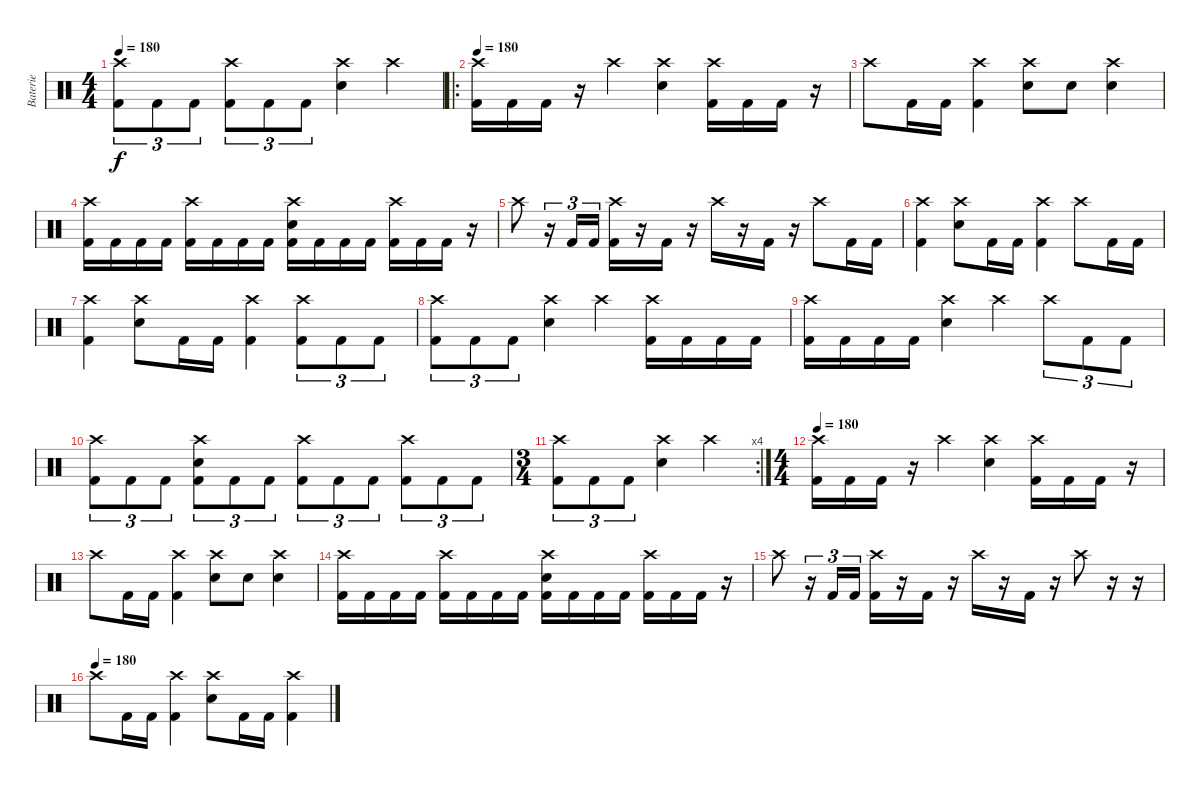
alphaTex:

\track ("Baterie" "Baterie") {instrument percussion}
\staff {score}
\articulation defaults
\ts (4 4)
\tempo 180
\clef neutral
\ks c
("Crash high (hit)" "Kick (hit) 2").8{tu (3 2) dy f} "Kick (hit) 2".8{tu (3 2)} "Kick (hit) 2".8{tu (3 2)} ("Crash high (hit)" "Kick (hit) 2").8{tu (3 2)} "Kick (hit) 2".8{tu (3 2)} "Kick (hit) 2".8{tu (3 2)} ("Crash high (hit)" "Electric Snare (hit)").4 "Crash high (hit)".4 |
\ro
\tempo 180
("Crash high (hit)" "Kick (hit) 2").16 "Kick (hit) 2".16 "Kick (hit) 2".16 r.16 "Crash high (hit)".4 ("Crash high (hit)" "Electric Snare (hit)").4 ("Crash high (hit)" "Kick (hit) 2").16 "Kick (hit) 2".16 "Kick (hit) 2".16 r.16 |
"Crash high (hit)".8 "Kick (hit) 2".16 "Kick (hit) 2".16 ("Crash high (hit)" "Kick (hit) 2").4 ("Crash high (hit)" "Electric Snare (hit)").8 "Electric Snare (hit)".8 ("Crash high (hit)" "Electric Snare (hit)").4 |
("Crash high (hit)" "Kick (hit) 2").16 "Kick (hit) 2".16 "Kick (hit) 2".16 "Kick (hit) 2".16 ("Crash high (hit)" "Kick (hit) 2").16 "Kick (hit) 2".16 "Kick (hit) 2".16 "Kick (hit) 2".16 ("Crash high (hit)" "Electric Snare (hit)" "Kick (hit) 2").16 "Kick (hit) 2".16 "Kick (hit) 2".16 "Kick (hit) 2".16 ("Crash high (hit)" "Kick (hit) 2").16 "Kick (hit) 2".16 "Kick (hit) 2".16 r.16 |
"Crash high (hit)".8 r.16{tu (3 2)} "Kick (hit) 2".16{tu (3 2)} "Kick (hit) 2".16{tu (3 2)} ("Crash high (hit)" "Kick (hit) 2").16 r.16 "Kick (hit) 2".16 r.16 "Crash high (hit)".16 r.16 "Kick (hit) 2".16 r.16 "Crash high (hit)".8 "Kick (hit) 2".16 "Kick (hit) 2".16 |
("Crash high (hit)" "Kick (hit) 2").4 ("Crash high (hit)" "Electric Snare (hit)").8 "Kick (hit) 2".16 "Kick (hit) 2".16 ("Crash high (hit)" "Kick (hit) 2").4 "Crash high (hit)".8 "Kick (hit) 2".16 "Kick (hit) 2".16 |
("Crash high (hit)" "Kick (hit) 2").4 ("Crash high (hit)" "Electric Snare (hit)").8 "Kick (hit) 2".16 "Kick (hit) 2".16 ("Crash high (hit)" "Kick (hit) 2").4 ("Crash high (hit)" "Kick (hit) 2").8{tu (3 2)} "Kick (hit) 2".8{tu (3 2)} "Kick (hit) 2".8{tu (3 2)} |
("Crash high (hit)" "Kick (hit) 2").8{tu (3 2)} "Kick (hit) 2".8{tu (3 2)} "Kick (hit) 2".8{tu (3 2)} ("Crash high (hit)" "Electric Snare (hit)").4 "Crash high (hit)".4 ("Crash high (hit)" "Kick (hit) 2").16 "Kick (hit) 2".16 "Kick (hit) 2".16 "Kick (hit) 2".16 |
("Crash high (hit)" "Kick (hit) 2").16 "Kick (hit) 2".16 "Kick (hit) 2".16 "Kick (hit) 2".16 ("Crash high (hit)" "Electric Snare (hit)").4 "Crash high (hit)".4 "Crash high (hit)".8{tu (3 2)} "Kick (hit) 2".8{tu (3 2)} "Kick (hit) 2".8{tu (3 2)} |
("Crash high (hit)" "Kick (hit) 2").8{tu (3 2)} "Kick (hit) 2".8{tu (3 2)} "Kick (hit) 2".8{tu (3 2)} ("Crash high (hit)" "Kick (hit) 2" "Electric Snare (hit)").8{tu (3 2)} "Kick (hit) 2".8{tu (3 2)} "Kick (hit) 2".8{tu (3 2)} ("Crash high (hit)" "Kick (hit) 2").8{tu (3 2)} "Kick (hit) 2".8{tu (3 2)} "Kick (hit) 2".8{tu (3 2)} ("Crash high (hit)" "Kick (hit) 2").8{tu (3 2)} "Kick (hit) 2".8{tu (3 2)} "Kick (hit) 2".8{tu (3 2)} |
\rc 4
\ts (3 4)
("Crash high (hit)" "Kick (hit) 2").8{tu (3 2)} "Kick (hit) 2".8{tu (3 2)} "Kick (hit) 2".8{tu (3 2)} ("Crash high (hit)" "Electric Snare (hit)").4 "Crash high (hit)".4 |
\ts (4 4)
\tempo 180
("Crash high (hit)" "Kick (hit) 2").16 "Kick (hit) 2".16 "Kick (hit) 2".16 r.16 "Crash high (hit)".4 ("Crash high (hit)" "Electric Snare (hit)").4 ("Crash high (hit)" "Kick (hit) 2").16 "Kick (hit) 2".16 "Kick (hit) 2".16 r.16 |
"Crash high (hit)".8 "Kick (hit) 2".16 "Kick (hit) 2".16 ("Crash high (hit)" "Kick (hit) 2").4 ("Crash high (hit)" "Electric Snare (hit)").8 "Electric Snare (hit)".8 ("Crash high (hit)" "Electric Snare (hit)").4 |
("Crash high (hit)" "Kick (hit) 2").16 "Kick (hit) 2".16 "Kick (hit) 2".16 "Kick (hit) 2".16 ("Crash high (hit)" "Kick (hit) 2").16 "Kick (hit) 2".16 "Kick (hit) 2".16 "Kick (hit) 2".16 ("Crash high (hit)" "Electric Snare (hit)" "Kick (hit) 2").16 "Kick (hit) 2".16 "Kick (hit) 2".16 "Kick (hit) 2".16 ("Crash high (hit)" "Kick (hit) 2").16 "Kick (hit) 2".16 "Kick (hit) 2".16 r.16 |
"Crash high (hit)".8 r.16{tu (3 2)} "Kick (hit) 2".16{tu (3 2)} "Kick (hit) 2".16{tu (3 2)} ("Crash high (hit)" "Kick (hit) 2").16 r.16 "Kick (hit) 2".16 r.16 "Crash high (hit)".16 r.16 "Kick (hit) 2".16 r.16 "Crash high (hit)".8 r.16 r.16 |
\tempo (180)
"Crash high (hit)".8 "Kick (hit) 2".16 "Kick (hit) 2".16 ("Crash high (hit)" "Kick (hit) 2").4 ("Crash high (hit)" "Electric Snare (hit)").8 "Kick (hit) 2".16 "Kick (hit) 2".16 ("Crash high (hit)" "Kick (hit) 2").4
